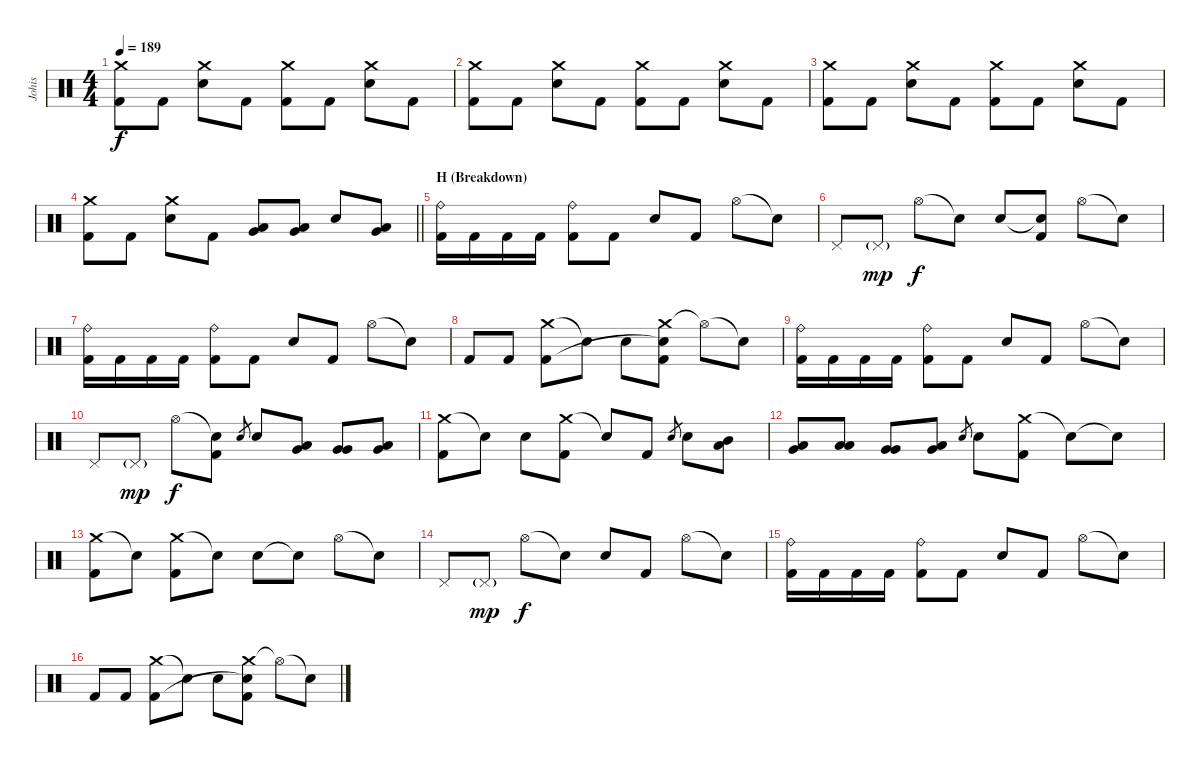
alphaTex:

\track ("Johis" "Johis") {instrument percussion}
\staff {score}
\articulation defaults
\ts (4 4)
\tempo 189
\clef neutral
\ks c
("Crash medium (hit)" "Kick (hit) 2").8{dy f} "Kick (hit) 2".8 ("Crash medium (hit)" "Electric Snare (hit)").8 "Kick (hit) 2".8 ("Crash medium (hit)" "Kick (hit) 2").8 "Kick (hit) 2".8 ("Crash medium (hit)" "Electric Snare (hit)").8 "Kick (hit) 2".8 |
("Crash medium (hit)" "Kick (hit) 2").8 "Kick (hit) 2".8 ("Crash medium (hit)" "Electric Snare (hit)").8 "Kick (hit) 2".8 ("Crash medium (hit)" "Kick (hit) 2").8 "Kick (hit) 2".8 ("Crash medium (hit)" "Electric Snare (hit)").8 "Kick (hit) 2".8 |
("Crash medium (hit)" "Kick (hit) 2").8 "Kick (hit) 2".8 ("Crash medium (hit)" "Electric Snare (hit)").8 "Kick (hit) 2".8 ("Crash medium (hit)" "Kick (hit) 2").8 "Kick (hit) 2".8 ("Crash medium (hit)" "Electric Snare (hit)").8 "Kick (hit) 2".8 |
\barLineRight lightlight
("Crash medium (hit)" "Kick (hit) 2").8 "Kick (hit) 2".8 ("Crash medium (hit)" "Electric Snare (hit)").8 "Kick (hit) 2".8 ("Low Tom (hit)" "Very Low Tom (hit)").8 ("Low Tom (hit)" "Very Low Tom (hit)").8 "Electric Snare (hit)".8 ("Low Tom (hit)" "Very Low Tom (hit)").8 |
\section ("" "H (Breakdown)")
("Ride (bell)" "Kick (hit) 2").16 "Kick (hit) 2".16 "Kick (hit) 2".16 "Kick (hit) 2".16 ("Ride (bell)" "Kick (hit) 2").8 "Kick (hit) 2".8 "Electric Snare (hit)".8 "Kick (hit) 2".8 "Hi-Hat (open)".8 "Snare (hit)"{t}.8 |
"Pedal Hi-Hat (hit)".8 "Pedal Hi-Hat (hit)"{g}.8{dy mp} "Hi-Hat (open)".8{dy f} "Snare (hit)"{t}.8 "Electric Snare (hit)".8 ("Electric Snare (hit)"{t} "Kick (hit) 2").8 "Hi-Hat (open)".8 "Snare (hit)"{t}.8 |
("Ride (bell)" "Kick (hit) 2").16 "Kick (hit) 2".16 "Kick (hit) 2".16 "Kick (hit) 2".16 ("Ride (bell)" "Kick (hit) 2").8 "Kick (hit) 2".8 "Electric Snare (hit)".8 "Kick (hit) 2".8 "Hi-Hat (open)".8 "Snare (hit)"{t}.8 |
"Kick (hit) 2".8 "Kick (hit) 2".8 ("Crash medium (hit)" "Kick (hit) 2").8 "Snare (hit)"{t}.8 "Electric Snare (hit)".8 ("Crash medium (hit)" "Electric Snare (hit)"{t} "Kick (hit) 2").8 "Hi-Hat (open)"{t}.8 "Snare (hit)"{t}.8 |
("Ride (bell)" "Kick (hit) 2").16 "Kick (hit) 2".16 "Kick (hit) 2".16 "Kick (hit) 2".16 ("Ride (bell)" "Kick (hit) 2").8 "Kick (hit) 2".8 "Electric Snare (hit)".8 "Kick (hit) 2".8 "Hi-Hat (open)".8 "Snare (hit)"{t}.8 |
"Pedal Hi-Hat (hit)".8 "Pedal Hi-Hat (hit)"{g}.8{dy mp} "Hi-Hat (open)".8{dy f} ("Snare (hit)"{t} "Kick (hit) 2").8 "Electric Snare (hit)".8{gr} "Electric Snare (hit)".8 ("Low Tom (hit)" "Very Low Tom (hit)").8 ("Very Low Tom (hit)" "Very Low Tom (hit)").8 ("Low Floor Tom (hit)" "Very Low Tom (hit)").8 |
("Crash medium (hit)" "Kick (hit) 2").8 "Snare (hit)"{t}.8 "Electric Snare (hit)".8 ("Crash medium (hit)" "Kick (hit) 2").8 "Snare (hit)"{t}.8 "Kick (hit) 2".8 "Electric Snare (hit)".8{gr} "Electric Snare (hit)".8 ("Low Tom (hit)" "Mid Tom (hit)").8 |
("Very Low Tom (hit)" "Low Tom (hit)").8 ("Low Floor Tom (hit)" "Low Tom (hit)").8 ("Very Low Tom (hit)" "Very Low Tom (hit)").8 ("Low Floor Tom (hit)" "Very Low Tom (hit)").8 "Electric Snare (hit)".8{gr} "Electric Snare (hit)".8 ("Crash medium (hit)" "Kick (hit) 2").8 "Snare (hit)"{t}.8 "Snare (hit)"{t}.8 |
("Crash medium (hit)" "Kick (hit) 2").8 "Snare (hit)"{t}.8 ("Crash medium (hit)" "Kick (hit) 2").8 "Snare (hit)"{t}.8 "Electric Snare (hit)".8 "Snare (hit)"{t}.8 "Hi-Hat (open)".8 "Snare (hit)"{t}.8 |
"Pedal Hi-Hat (hit)".8 "Pedal Hi-Hat (hit)"{g}.8{dy mp} "Hi-Hat (open)".8{dy f} "Snare (hit)"{t}.8 "Electric Snare (hit)".8 "Kick (hit) 2".8 "Hi-Hat (open)".8 "Snare (hit)"{t}.8 |
("Ride (bell)" "Kick (hit) 2").16 "Kick (hit) 2".16 "Kick (hit) 2".16 "Kick (hit) 2".16 ("Ride (bell)" "Kick (hit) 2").8 "Kick (hit) 2".8 "Electric Snare (hit)".8 "Kick (hit) 2".8 "Hi-Hat (open)".8 "Snare (hit)"{t}.8 |
"Kick (hit) 2".8 "Kick (hit) 2".8 ("Crash medium (hit)" "Kick (hit) 2").8 "Snare (hit)"{t}.8 "Electric Snare (hit)".8 ("Crash medium (hit)" "Electric Snare (hit)"{t} "Kick (hit) 2").8 "Hi-Hat (open)"{t}.8 "Snare (hit)"{t}.8
